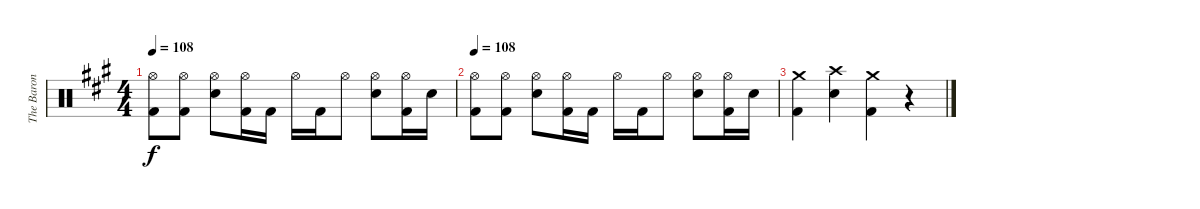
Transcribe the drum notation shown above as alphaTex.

\track ("The Baron Von Tito" "The Baron ") {instrument percussion}
\staff {score}
\articulation defaults
\ts (4 4)
\tempo 108
\clef neutral
\ks a
("Hi-Hat (open)" "Kick (hit) 2").8{dy f} ("Hi-Hat (open)" "Kick (hit) 2").8 ("Hi-Hat (open)" "Electric Snare (hit)").8 ("Hi-Hat (open)" "Kick (hit) 2").16 "Kick (hit) 2".16 "Hi-Hat (open)".16 "Kick (hit) 2".16 "Hi-Hat (open)".8 ("Hi-Hat (open)" "Electric Snare (hit)").8 ("Hi-Hat (open)" "Kick (hit) 2").16 "Electric Snare (hit)".16 |
\tempo 108
("Hi-Hat (open)" "Kick (hit) 2").8 ("Hi-Hat (open)" "Kick (hit) 2").8 ("Hi-Hat (open)" "Electric Snare (hit)").8 ("Hi-Hat (open)" "Kick (hit) 2").16 "Kick (hit) 2".16 "Hi-Hat (open)".16 "Kick (hit) 2".16 "Hi-Hat (open)".8 ("Hi-Hat (open)" "Electric Snare (hit)").8 ("Hi-Hat (open)" "Kick (hit) 2").16 "Electric Snare (hit)".16 |
("Crash medium (hit)" "Kick (hit) 2").4 ("Crash high (hit)" "Electric Snare (hit)").4 ("Crash medium (hit)" "Kick (hit) 2").4 r.4
